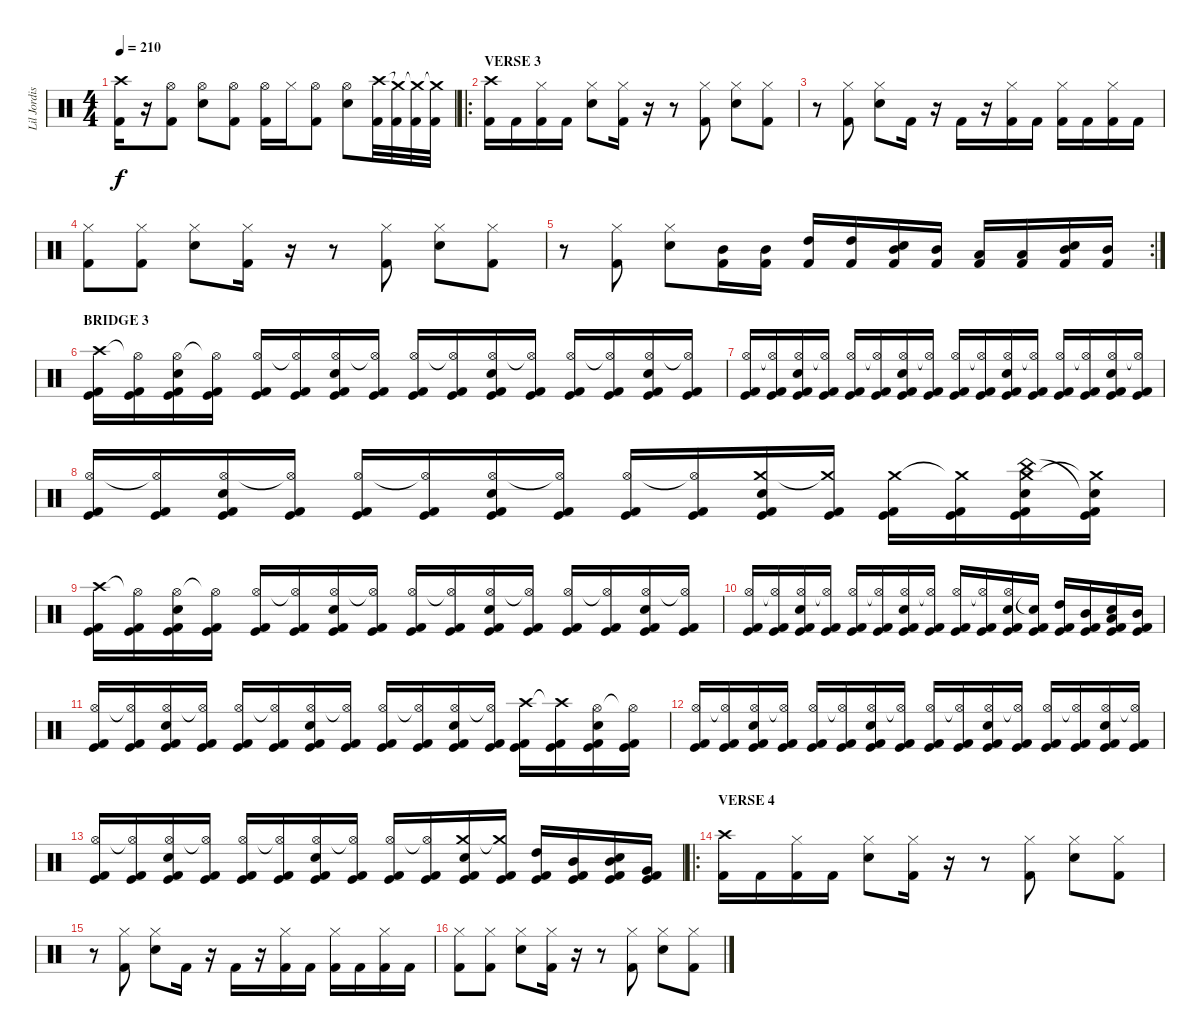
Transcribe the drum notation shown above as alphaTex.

\track ("Lil Jordison" "Lil Jordis") {instrument percussion}
\staff {score}
\articulation defaults
\ts (4 4)
\tempo 210
\clef neutral
\ks c
("Crash high (hit)" "Kick (hit) 2").16{dy f} r.16 ("Hi-Hat (open)" "Kick (hit) 2").8 ("Hi-Hat (open)" "Electric Snare (hit)").8 ("Hi-Hat (open)" "Kick (hit) 2").8 ("Hi-Hat (open)" "Kick (hit) 2").16 "Hi-Hat (closed)".16 ("Hi-Hat (open)" "Kick (hit) 2").8 ("Hi-Hat (open)" "Electric Snare (hit)").8 ("Crash high (hit)" "Kick (hit) 2").32 ("Crash medium (hit)"{t} "Kick (hit) 2").32 ("Crash medium (hit)"{t} "Kick (hit) 2").32 ("Crash medium (hit)"{t} "Kick (hit) 2").32 |
\ro
\section ("" "VERSE 3")
("Crash high (hit)" "Kick (hit) 2").16 "Kick (hit) 2".16 ("Hi-Hat (closed)" "Kick (hit) 2").16 "Kick (hit) 2".16 ("Hi-Hat (closed)" "Electric Snare (hit)").8 ("Hi-Hat (closed)" "Kick (hit) 2").16 r.16 r.8 ("Hi-Hat (closed)" "Kick (hit) 2").8 ("Hi-Hat (closed)" "Electric Snare (hit)").8 ("Hi-Hat (closed)" "Kick (hit) 2").8 |
r.8 ("Hi-Hat (closed)" "Kick (hit) 2").8 ("Hi-Hat (closed)" "Electric Snare (hit)").8 "Kick (hit) 2".16 r.16 "Kick (hit) 2".16 r.16 ("Hi-Hat (closed)" "Kick (hit) 2").16 "Kick (hit) 2".16 ("Hi-Hat (closed)" "Kick (hit) 2").16 "Kick (hit) 2".16 ("Hi-Hat (closed)" "Kick (hit) 2").16 "Kick (hit) 2".16 |
("Hi-Hat (closed)" "Kick (hit) 2").8 ("Hi-Hat (closed)" "Kick (hit) 2").8 ("Hi-Hat (closed)" "Electric Snare (hit)").8 ("Hi-Hat (closed)" "Kick (hit) 2").16 r.16 r.8 ("Hi-Hat (closed)" "Kick (hit) 2").8 ("Hi-Hat (closed)" "Electric Snare (hit)").8 ("Hi-Hat (closed)" "Kick (hit) 2").8 |
\rc 2
r.8 ("Hi-Hat (closed)" "Kick (hit) 2").8 ("Hi-Hat (closed)" "Electric Snare (hit)").8 ("Mid Tom (hit)" "Kick (hit) 2").16 ("Mid Tom (hit)" "Kick (hit) 2").16 ("High Tom (hit)" "Kick (hit) 2").16 ("High Tom (hit)" "Kick (hit) 2").16 ("Mid Tom (hit)" "Electric Snare (hit)" "Kick (hit) 2").16 ("Mid Tom (hit)" "Kick (hit) 2").16 ("Low Tom (hit)" "Kick (hit) 2").16 ("Low Tom (hit)" "Kick (hit) 2").16 ("Mid Tom (hit)" "Electric Snare (hit)" "Kick (hit) 2").16 ("Mid Tom (hit)" "Kick (hit) 2").16 |
\section ("" "BRIDGE 3")
("Crash high (hit)" "Kick (hit)" "Kick (hit) 2").16 ("Hi-Hat (open)"{t} "Kick (hit)" "Kick (hit) 2").16 ("Hi-Hat (open)" "Electric Snare (hit)" "Kick (hit)" "Kick (hit) 2").16 ("Hi-Hat (open)"{t} "Kick (hit)" "Kick (hit) 2").16 ("Hi-Hat (open)" "Kick (hit)" "Kick (hit) 2").16 ("Hi-Hat (open)"{t} "Kick (hit)" "Kick (hit) 2").16 ("Hi-Hat (open)" "Electric Snare (hit)" "Kick (hit)" "Kick (hit) 2").16 ("Hi-Hat (open)"{t} "Kick (hit)" "Kick (hit) 2").16 ("Hi-Hat (open)" "Kick (hit)" "Kick (hit) 2").16 ("Hi-Hat (open)"{t} "Kick (hit)" "Kick (hit) 2").16 ("Hi-Hat (open)" "Electric Snare (hit)" "Kick (hit)" "Kick (hit) 2").16 ("Hi-Hat (open)"{t} "Kick (hit)" "Kick (hit) 2").16 ("Hi-Hat (open)" "Kick (hit)" "Kick (hit) 2").16 ("Hi-Hat (open)"{t} "Kick (hit)" "Kick (hit) 2").16 ("Hi-Hat (open)" "Electric Snare (hit)" "Kick (hit)" "Kick (hit) 2").16 ("Hi-Hat (open)"{t} "Kick (hit)" "Kick (hit) 2").16 |
("Hi-Hat (open)" "Kick (hit)" "Kick (hit) 2").16 ("Hi-Hat (open)"{t} "Kick (hit)" "Kick (hit) 2").16 ("Hi-Hat (open)" "Electric Snare (hit)" "Kick (hit)" "Kick (hit) 2").16 ("Hi-Hat (open)"{t} "Kick (hit)" "Kick (hit) 2").16 ("Hi-Hat (open)" "Kick (hit)" "Kick (hit) 2").16 ("Hi-Hat (open)"{t} "Kick (hit)" "Kick (hit) 2").16 ("Hi-Hat (open)" "Electric Snare (hit)" "Kick (hit)" "Kick (hit) 2").16 ("Hi-Hat (open)"{t} "Kick (hit)" "Kick (hit) 2").16 ("Hi-Hat (open)" "Kick (hit)" "Kick (hit) 2").16 ("Hi-Hat (open)"{t} "Kick (hit)" "Kick (hit) 2").16 ("Hi-Hat (open)" "Electric Snare (hit)" "Kick (hit)" "Kick (hit) 2").16 ("Hi-Hat (open)"{t} "Kick (hit)" "Kick (hit) 2").16 ("Hi-Hat (open)" "Kick (hit)" "Kick (hit) 2").16 ("Hi-Hat (open)"{t} "Kick (hit)" "Kick (hit) 2").16 ("Hi-Hat (open)" "Electric Snare (hit)" "Kick (hit)" "Kick (hit) 2").16 ("Hi-Hat (open)"{t} "Kick (hit)" "Kick (hit) 2").16 |
("Hi-Hat (open)" "Kick (hit)" "Kick (hit) 2").16 ("Hi-Hat (open)"{t} "Kick (hit)" "Kick (hit) 2").16 ("Hi-Hat (open)" "Electric Snare (hit)" "Kick (hit)" "Kick (hit) 2").16 ("Hi-Hat (open)"{t} "Kick (hit)" "Kick (hit) 2").16 ("Hi-Hat (open)" "Kick (hit)" "Kick (hit) 2").16 ("Hi-Hat (open)"{t} "Kick (hit)" "Kick (hit) 2").16 ("Hi-Hat (open)" "Electric Snare (hit)" "Kick (hit)" "Kick (hit) 2").16 ("Hi-Hat (open)"{t} "Kick (hit)" "Kick (hit) 2").16 ("Hi-Hat (open)" "Kick (hit)" "Kick (hit) 2").16 ("Hi-Hat (open)"{t} "Kick (hit)" "Kick (hit) 2").16 ("Crash medium (hit)" "Electric Snare (hit)" "Kick (hit)" "Kick (hit) 2").16 ("Crash medium (hit)"{t} "Kick (hit)" "Kick (hit) 2").16 ("Crash medium (hit)" "Kick (hit)" "Kick (hit) 2").16 ("Crash medium (hit)"{t} "Kick (hit)" "Kick (hit) 2").16 ("Crash medium (hit)" "China (hit)" "Electric Snare (hit)" "Kick (hit)" "Kick (hit) 2").16 ("Crash medium (hit)"{t} "Snare (hit)"{t} "Kick (hit)" "Kick (hit) 2").16 |
("Crash high (hit)" "Kick (hit)" "Kick (hit) 2").16 ("Hi-Hat (open)"{t} "Kick (hit)" "Kick (hit) 2").16 ("Hi-Hat (open)" "Electric Snare (hit)" "Kick (hit)" "Kick (hit) 2").16 ("Hi-Hat (open)"{t} "Kick (hit)" "Kick (hit) 2").16 ("Hi-Hat (open)" "Kick (hit)" "Kick (hit) 2").16 ("Hi-Hat (open)"{t} "Kick (hit)" "Kick (hit) 2").16 ("Hi-Hat (open)" "Electric Snare (hit)" "Kick (hit)" "Kick (hit) 2").16 ("Hi-Hat (open)"{t} "Kick (hit)" "Kick (hit) 2").16 ("Hi-Hat (open)" "Kick (hit)" "Kick (hit) 2").16 ("Hi-Hat (open)"{t} "Kick (hit)" "Kick (hit) 2").16 ("Hi-Hat (open)" "Electric Snare (hit)" "Kick (hit)" "Kick (hit) 2").16 ("Hi-Hat (open)"{t} "Kick (hit)" "Kick (hit) 2").16 ("Hi-Hat (open)" "Kick (hit)" "Kick (hit) 2").16 ("Hi-Hat (open)"{t} "Kick (hit)" "Kick (hit) 2").16 ("Hi-Hat (open)" "Electric Snare (hit)" "Kick (hit)" "Kick (hit) 2").16 ("Hi-Hat (open)"{t} "Kick (hit)" "Kick (hit) 2").16 |
("Hi-Hat (open)" "Kick (hit)" "Kick (hit) 2").16 ("Hi-Hat (open)"{t} "Kick (hit)" "Kick (hit) 2").16 ("Hi-Hat (open)" "Electric Snare (hit)" "Kick (hit)" "Kick (hit) 2").16 ("Hi-Hat (open)"{t} "Kick (hit)" "Kick (hit) 2").16 ("Hi-Hat (open)" "Kick (hit)" "Kick (hit) 2").16 ("Hi-Hat (open)"{t} "Kick (hit)" "Kick (hit) 2").16 ("Hi-Hat (open)" "Electric Snare (hit)" "Kick (hit)" "Kick (hit) 2").16 ("Hi-Hat (open)"{t} "Kick (hit)" "Kick (hit) 2").16 ("Hi-Hat (open)" "Kick (hit)" "Kick (hit) 2").16 ("Hi-Hat (open)"{t} "Kick (hit)" "Kick (hit) 2").16 ("Hi-Hat (open)" "Electric Snare (hit)" "Kick (hit)" "Kick (hit) 2").16 ("Snare (hit)"{t} "Kick (hit)" "Kick (hit) 2").16 ("High Tom (hit)" "Kick (hit)" "Kick (hit) 2").16 ("Mid Tom (hit)" "Kick (hit)" "Kick (hit) 2").16 ("Low Tom (hit)" "Electric Snare (hit)" "Kick (hit)" "Kick (hit) 2").16 ("Mid Tom (hit)" "Kick (hit)" "Kick (hit) 2").16 |
("Hi-Hat (open)" "Kick (hit)" "Kick (hit) 2").16 ("Hi-Hat (open)"{t} "Kick (hit)" "Kick (hit) 2").16 ("Hi-Hat (open)" "Electric Snare (hit)" "Kick (hit)" "Kick (hit) 2").16 ("Hi-Hat (open)"{t} "Kick (hit)" "Kick (hit) 2").16 ("Hi-Hat (open)" "Kick (hit)" "Kick (hit) 2").16 ("Hi-Hat (open)"{t} "Kick (hit)" "Kick (hit) 2").16 ("Hi-Hat (open)" "Electric Snare (hit)" "Kick (hit)" "Kick (hit) 2").16 ("Hi-Hat (open)"{t} "Kick (hit)" "Kick (hit) 2").16 ("Hi-Hat (open)" "Kick (hit)" "Kick (hit) 2").16 ("Hi-Hat (open)"{t} "Kick (hit)" "Kick (hit) 2").16 ("Hi-Hat (open)" "Electric Snare (hit)" "Kick (hit)" "Kick (hit) 2").16 ("Hi-Hat (open)"{t} "Kick (hit)" "Kick (hit) 2").16 ("Crash high (hit)" "Kick (hit)" "Kick (hit) 2").16 ("Crash high (hit)"{t} "Kick (hit)" "Kick (hit) 2").16 ("Hi-Hat (open)" "Electric Snare (hit)" "Kick (hit)" "Kick (hit) 2").16 ("Hi-Hat (open)"{t} "Kick (hit)" "Kick (hit) 2").16 |
("Hi-Hat (open)" "Kick (hit)" "Kick (hit) 2").16 ("Hi-Hat (open)"{t} "Kick (hit)" "Kick (hit) 2").16 ("Hi-Hat (open)" "Electric Snare (hit)" "Kick (hit)" "Kick (hit) 2").16 ("Hi-Hat (open)"{t} "Kick (hit)" "Kick (hit) 2").16 ("Hi-Hat (open)" "Kick (hit)" "Kick (hit) 2").16 ("Hi-Hat (open)"{t} "Kick (hit)" "Kick (hit) 2").16 ("Hi-Hat (open)" "Electric Snare (hit)" "Kick (hit)" "Kick (hit) 2").16 ("Hi-Hat (open)"{t} "Kick (hit)" "Kick (hit) 2").16 ("Hi-Hat (open)" "Kick (hit)" "Kick (hit) 2").16 ("Hi-Hat (open)"{t} "Kick (hit)" "Kick (hit) 2").16 ("Hi-Hat (open)" "Electric Snare (hit)" "Kick (hit)" "Kick (hit) 2").16 ("Hi-Hat (open)"{t} "Kick (hit)" "Kick (hit) 2").16 ("Hi-Hat (open)" "Kick (hit)" "Kick (hit) 2").16 ("Hi-Hat (open)"{t} "Kick (hit)" "Kick (hit) 2").16 ("Hi-Hat (open)" "Electric Snare (hit)" "Kick (hit)" "Kick (hit) 2").16 ("Hi-Hat (open)"{t} "Kick (hit)" "Kick (hit) 2").16 |
("Hi-Hat (open)" "Kick (hit)" "Kick (hit) 2").16 ("Hi-Hat (open)"{t} "Kick (hit)" "Kick (hit) 2").16 ("Hi-Hat (open)" "Electric Snare (hit)" "Kick (hit)" "Kick (hit) 2").16 ("Hi-Hat (open)"{t} "Kick (hit)" "Kick (hit) 2").16 ("Hi-Hat (open)" "Kick (hit)" "Kick (hit) 2").16 ("Hi-Hat (open)"{t} "Kick (hit)" "Kick (hit) 2").16 ("Hi-Hat (open)" "Electric Snare (hit)" "Kick (hit)" "Kick (hit) 2").16 ("Hi-Hat (open)"{t} "Kick (hit)" "Kick (hit) 2").16 ("Hi-Hat (open)" "Kick (hit)" "Kick (hit) 2").16 ("Hi-Hat (open)"{t} "Kick (hit)" "Kick (hit) 2").16 ("Crash medium (hit)" "Electric Snare (hit)" "Kick (hit)" "Kick (hit) 2").16 ("Crash medium (hit)"{t} "Kick (hit)" "Kick (hit) 2").16 ("High Tom (hit)" "Kick (hit)" "Kick (hit) 2").16 ("Mid Tom (hit)" "Kick (hit)" "Kick (hit) 2").16 ("Mid Tom (hit)" "Electric Snare (hit)" "Kick (hit)" "Kick (hit) 2").16 ("Very Low Tom (hit)" "Kick (hit)" "Kick (hit) 2").16 |
\ro
\section ("" "VERSE 4")
("Crash high (hit)" "Kick (hit) 2").16 "Kick (hit) 2".16 ("Hi-Hat (closed)" "Kick (hit) 2").16 "Kick (hit) 2".16 ("Hi-Hat (closed)" "Electric Snare (hit)").8 ("Hi-Hat (closed)" "Kick (hit) 2").16 r.16 r.8 ("Hi-Hat (closed)" "Kick (hit) 2").8 ("Hi-Hat (closed)" "Electric Snare (hit)").8 ("Hi-Hat (closed)" "Kick (hit) 2").8 |
r.8 ("Hi-Hat (closed)" "Kick (hit) 2").8 ("Hi-Hat (closed)" "Electric Snare (hit)").8 "Kick (hit) 2".16 r.16 "Kick (hit) 2".16 r.16 ("Hi-Hat (closed)" "Kick (hit) 2").16 "Kick (hit) 2".16 ("Hi-Hat (closed)" "Kick (hit) 2").16 "Kick (hit) 2".16 ("Hi-Hat (closed)" "Kick (hit) 2").16 "Kick (hit) 2".16 |
("Hi-Hat (closed)" "Kick (hit) 2").8 ("Hi-Hat (closed)" "Kick (hit) 2").8 ("Hi-Hat (closed)" "Electric Snare (hit)").8 ("Hi-Hat (closed)" "Kick (hit) 2").16 r.16 r.8 ("Hi-Hat (closed)" "Kick (hit) 2").8 ("Hi-Hat (closed)" "Electric Snare (hit)").8 ("Hi-Hat (closed)" "Kick (hit) 2").8
